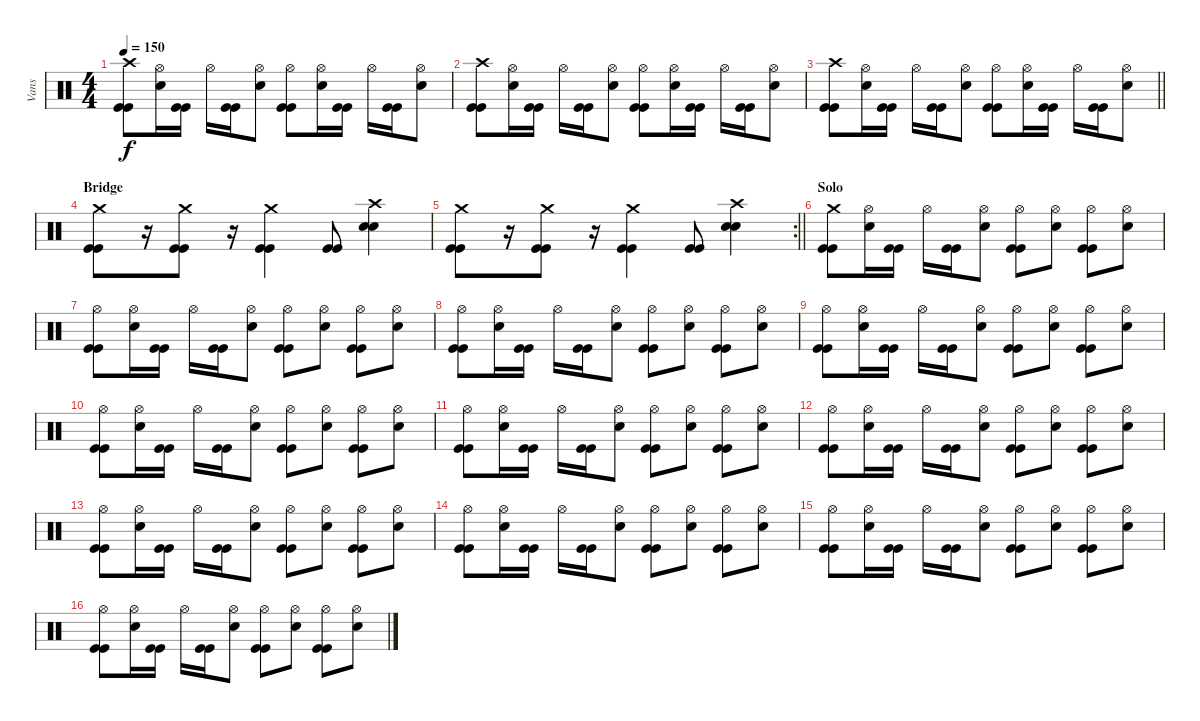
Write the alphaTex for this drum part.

\track ("Vans" "Vans") {instrument percussion}
\staff {score}
\articulation defaults
\ts (4 4)
\tempo 150
\clef neutral
\ks c
("Crash high (hit)" "Kick (hit)" "Kick (hit)").8{dy f} ("Hi-Hat (open)" "Snare (hit) 2").16 ("Kick (hit)" "Kick (hit)").16 "Hi-Hat (open)".16 ("Kick (hit)" "Kick (hit)").16 ("Hi-Hat (open)" "Snare (hit) 2").8 ("Hi-Hat (open)" "Kick (hit)" "Kick (hit)").8 ("Hi-Hat (open)" "Snare (hit) 2").16 ("Kick (hit)" "Kick (hit)").16 "Hi-Hat (open)".16 ("Kick (hit)" "Kick (hit)").16 ("Hi-Hat (open)" "Snare (hit) 2").8 |
("Crash high (hit)" "Kick (hit)" "Kick (hit)").8 ("Hi-Hat (open)" "Snare (hit) 2").16 ("Kick (hit)" "Kick (hit)").16 "Hi-Hat (open)".16 ("Kick (hit)" "Kick (hit)").16 ("Hi-Hat (open)" "Snare (hit) 2").8 ("Hi-Hat (open)" "Kick (hit)" "Kick (hit)").8 ("Hi-Hat (open)" "Snare (hit) 2").16 ("Kick (hit)" "Kick (hit)").16 "Hi-Hat (open)".16 ("Kick (hit)" "Kick (hit)").16 ("Hi-Hat (open)" "Snare (hit) 2").8 |
\barLineRight lightlight
("Crash high (hit)" "Kick (hit)" "Kick (hit)").8 ("Hi-Hat (open)" "Snare (hit) 2").16 ("Kick (hit)" "Kick (hit)").16 "Hi-Hat (open)".16 ("Kick (hit)" "Kick (hit)").16 ("Hi-Hat (open)" "Snare (hit) 2").8 ("Hi-Hat (open)" "Kick (hit)" "Kick (hit)").8 ("Hi-Hat (open)" "Snare (hit) 2").16 ("Kick (hit)" "Kick (hit)").16 "Hi-Hat (open)".16 ("Kick (hit)" "Kick (hit)").16 ("Hi-Hat (open)" "Snare (hit) 2").8 |
\section ("" "Bridge")
("Crash medium (hit)" "Kick (hit)" "Kick (hit)").8 r.16 ("Crash medium (hit)" "Kick (hit)" "Kick (hit)").8 r.16 ("Crash medium (hit)" "Kick (hit)" "Kick (hit)").4 ("Kick (hit)" "Kick (hit)").8 ("Crash high (hit)" "Snare (hit) 2" "Snare (hit) 2").4 |
\rc 2
\barLineRight lightlight
("Crash medium (hit)" "Kick (hit)" "Kick (hit)").8 r.16 ("Crash medium (hit)" "Kick (hit)" "Kick (hit)").8 r.16 ("Crash medium (hit)" "Kick (hit)" "Kick (hit)").4 ("Kick (hit)" "Kick (hit)").8 ("Crash high (hit)" "Snare (hit) 2" "Snare (hit) 2").4 |
\section ("" "Solo")
("Crash medium (hit)" "Kick (hit)" "Kick (hit)").8 ("Hi-Hat (open)" "Snare (hit) 2").16 ("Kick (hit)" "Kick (hit)").16 "Hi-Hat (open)".16 ("Kick (hit)" "Kick (hit)").16 ("Hi-Hat (open)" "Snare (hit) 2").8 ("Hi-Hat (open)" "Kick (hit)" "Kick (hit)").8 ("Hi-Hat (open)" "Snare (hit) 2").8 ("Hi-Hat (open)" "Kick (hit)" "Kick (hit)").8 ("Hi-Hat (open)" "Snare (hit) 2").8 |
("Hi-Hat (open)" "Kick (hit)" "Kick (hit)").8 ("Hi-Hat (open)" "Snare (hit) 2").16 ("Kick (hit)" "Kick (hit)").16 "Hi-Hat (open)".16 ("Kick (hit)" "Kick (hit)").16 ("Hi-Hat (open)" "Snare (hit) 2").8 ("Hi-Hat (open)" "Kick (hit)" "Kick (hit)").8 ("Hi-Hat (open)" "Snare (hit) 2").8 ("Hi-Hat (open)" "Kick (hit)" "Kick (hit)").8 ("Hi-Hat (open)" "Snare (hit) 2").8 |
("Hi-Hat (open)" "Kick (hit)" "Kick (hit)").8 ("Hi-Hat (open)" "Snare (hit) 2").16 ("Kick (hit)" "Kick (hit)").16 "Hi-Hat (open)".16 ("Kick (hit)" "Kick (hit)").16 ("Hi-Hat (open)" "Snare (hit) 2").8 ("Hi-Hat (open)" "Kick (hit)" "Kick (hit)").8 ("Hi-Hat (open)" "Snare (hit) 2").8 ("Hi-Hat (open)" "Kick (hit)" "Kick (hit)").8 ("Hi-Hat (open)" "Snare (hit) 2").8 |
("Hi-Hat (open)" "Kick (hit)" "Kick (hit)").8 ("Hi-Hat (open)" "Snare (hit) 2").16 ("Kick (hit)" "Kick (hit)").16 "Hi-Hat (open)".16 ("Kick (hit)" "Kick (hit)").16 ("Hi-Hat (open)" "Snare (hit) 2").8 ("Hi-Hat (open)" "Kick (hit)" "Kick (hit)").8 ("Hi-Hat (open)" "Snare (hit) 2").8 ("Hi-Hat (open)" "Kick (hit)" "Kick (hit)").8 ("Hi-Hat (open)" "Snare (hit) 2").8 |
("Hi-Hat (open)" "Kick (hit)" "Kick (hit)").8 ("Hi-Hat (open)" "Snare (hit) 2").16 ("Kick (hit)" "Kick (hit)").16 "Hi-Hat (open)".16 ("Kick (hit)" "Kick (hit)").16 ("Hi-Hat (open)" "Snare (hit) 2").8 ("Hi-Hat (open)" "Kick (hit)" "Kick (hit)").8 ("Hi-Hat (open)" "Snare (hit) 2").8 ("Hi-Hat (open)" "Kick (hit)" "Kick (hit)").8 ("Hi-Hat (open)" "Snare (hit) 2").8 |
("Hi-Hat (open)" "Kick (hit)" "Kick (hit)").8 ("Hi-Hat (open)" "Snare (hit) 2").16 ("Kick (hit)" "Kick (hit)").16 "Hi-Hat (open)".16 ("Kick (hit)" "Kick (hit)").16 ("Hi-Hat (open)" "Snare (hit) 2").8 ("Hi-Hat (open)" "Kick (hit)" "Kick (hit)").8 ("Hi-Hat (open)" "Snare (hit) 2").8 ("Hi-Hat (open)" "Kick (hit)" "Kick (hit)").8 ("Hi-Hat (open)" "Snare (hit) 2").8 |
("Hi-Hat (open)" "Kick (hit)" "Kick (hit)").8 ("Hi-Hat (open)" "Snare (hit) 2").16 ("Kick (hit)" "Kick (hit)").16 "Hi-Hat (open)".16 ("Kick (hit)" "Kick (hit)").16 ("Hi-Hat (open)" "Snare (hit) 2").8 ("Hi-Hat (open)" "Kick (hit)" "Kick (hit)").8 ("Hi-Hat (open)" "Snare (hit) 2").8 ("Hi-Hat (open)" "Kick (hit)" "Kick (hit)").8 ("Hi-Hat (open)" "Snare (hit) 2").8 |
("Hi-Hat (open)" "Kick (hit)" "Kick (hit)").8 ("Hi-Hat (open)" "Snare (hit) 2").16 ("Kick (hit)" "Kick (hit)").16 "Hi-Hat (open)".16 ("Kick (hit)" "Kick (hit)").16 ("Hi-Hat (open)" "Snare (hit) 2").8 ("Hi-Hat (open)" "Kick (hit)" "Kick (hit)").8 ("Hi-Hat (open)" "Snare (hit) 2").8 ("Hi-Hat (open)" "Kick (hit)" "Kick (hit)").8 ("Hi-Hat (open)" "Snare (hit) 2").8 |
("Hi-Hat (open)" "Kick (hit)" "Kick (hit)").8 ("Hi-Hat (open)" "Snare (hit) 2").16 ("Kick (hit)" "Kick (hit)").16 "Hi-Hat (open)".16 ("Kick (hit)" "Kick (hit)").16 ("Hi-Hat (open)" "Snare (hit) 2").8 ("Hi-Hat (open)" "Kick (hit)" "Kick (hit)").8 ("Hi-Hat (open)" "Snare (hit) 2").8 ("Hi-Hat (open)" "Kick (hit)" "Kick (hit)").8 ("Hi-Hat (open)" "Snare (hit) 2").8 |
("Hi-Hat (open)" "Kick (hit)" "Kick (hit)").8 ("Hi-Hat (open)" "Snare (hit) 2").16 ("Kick (hit)" "Kick (hit)").16 "Hi-Hat (open)".16 ("Kick (hit)" "Kick (hit)").16 ("Hi-Hat (open)" "Snare (hit) 2").8 ("Hi-Hat (open)" "Kick (hit)" "Kick (hit)").8 ("Hi-Hat (open)" "Snare (hit) 2").8 ("Hi-Hat (open)" "Kick (hit)" "Kick (hit)").8 ("Hi-Hat (open)" "Snare (hit) 2").8 |
("Hi-Hat (open)" "Kick (hit)" "Kick (hit)").8 ("Hi-Hat (open)" "Snare (hit) 2").16 ("Kick (hit)" "Kick (hit)").16 "Hi-Hat (open)".16 ("Kick (hit)" "Kick (hit)").16 ("Hi-Hat (open)" "Snare (hit) 2").8 ("Hi-Hat (open)" "Kick (hit)" "Kick (hit)").8 ("Hi-Hat (open)" "Snare (hit) 2").8 ("Hi-Hat (open)" "Kick (hit)" "Kick (hit)").8 ("Hi-Hat (open)" "Snare (hit) 2").8
